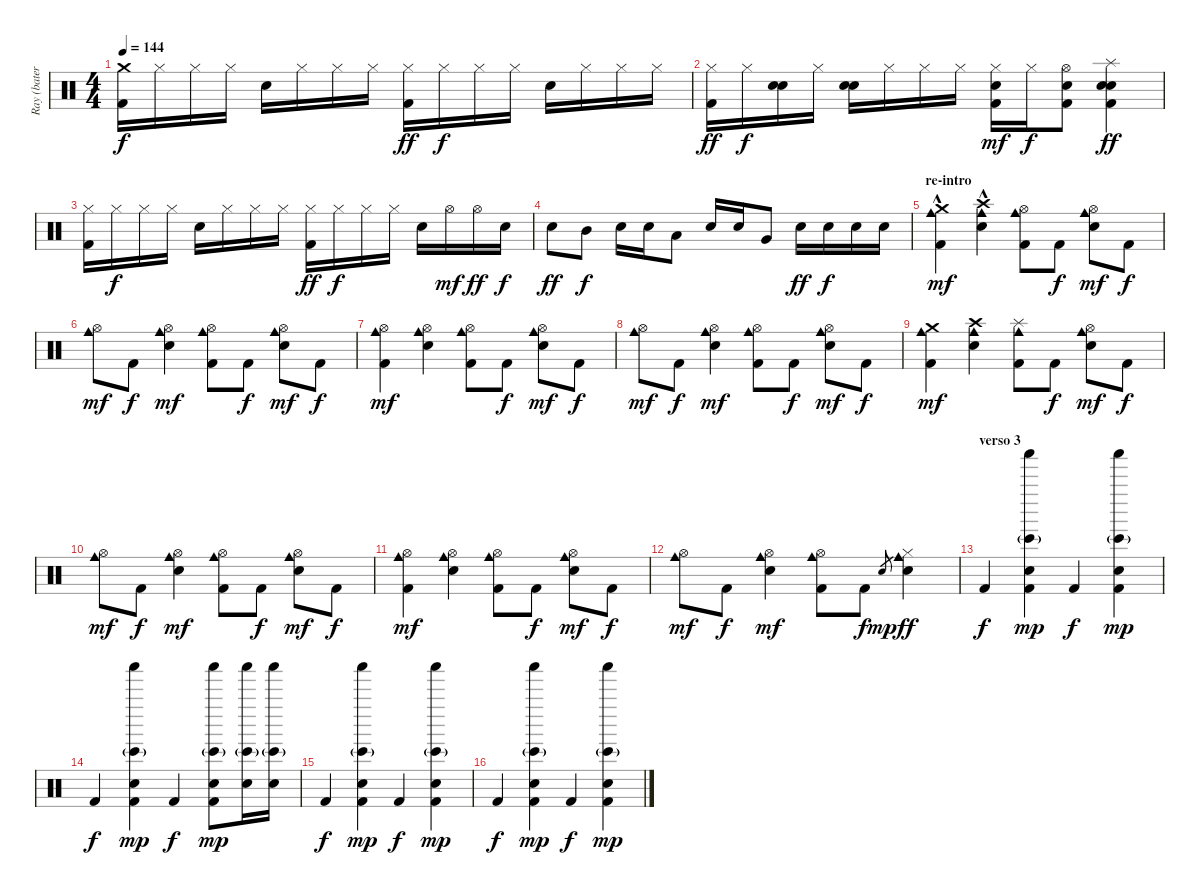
\track ("Ray (batería)" "Ray (bater") {instrument percussion}
\staff {score}
\articulation defaults
\ts (4 4)
\tempo 144
\clef neutral
\ks c
("Crash medium (hit)" "Kick (hit) 2").16{dy f} "Hi-Hat (closed)".16 "Hi-Hat (closed)".16 "Hi-Hat (closed)".16 "Snare (hit) 2".16 "Hi-Hat (closed)".16 "Hi-Hat (closed)".16 "Hi-Hat (closed)".16 ("Hi-Hat (closed)" "Kick (hit) 2").16{dy ff} "Hi-Hat (closed)".16{dy f} "Hi-Hat (closed)".16 "Hi-Hat (closed)".16 "Snare (hit) 2".16 "Hi-Hat (closed)".16 "Hi-Hat (closed)".16 "Hi-Hat (closed)".16 |
("Hi-Hat (closed)" "Kick (hit) 2").16{dy ff} "Hi-Hat (closed)".16{dy f} ("Hand Clap (hit)" "Snare (hit) 2").16 "Hi-Hat (closed)".16 ("Hand Clap (hit)" "Snare (hit) 2").16 "Hi-Hat (closed)".16 "Hi-Hat (closed)".16 "Hi-Hat (closed)".16 ("Hi-Hat (closed)" "Hand Clap (hit)" "Kick (hit) 2").16{dy mf} "Hi-Hat (closed)".16{dy f} ("Hi-Hat (open)" "Hand Clap (hit)" "Kick (hit) 2").8 ("Splash (hit)" "Hand Clap (hit)" "Snare (hit) 2" "Kick (hit) 2").4{dy ff} |
("Hi-Hat (closed)" "Kick (hit) 2").16 "Hi-Hat (closed)".16{dy f} "Hi-Hat (closed)".16 "Hi-Hat (closed)".16 "Snare (hit) 2".16 "Hi-Hat (closed)".16 "Hi-Hat (closed)".16 "Hi-Hat (closed)".16 ("Hi-Hat (closed)" "Kick (hit) 2").16{dy ff} "Hi-Hat (closed)".16{dy f} "Hi-Hat (closed)".16 "Hi-Hat (closed)".16 "Snare (hit) 2".16 "Hi-Hat (open)".16{dy mf} "Hi-Hat (open)".16{dy ff} "Snare (hit) 2".16{dy f} |
"Snare (hit) 2".8{dy ff} "Mid Tom (hit)".8{dy f} "Snare (hit) 2".16 "Snare (hit) 2".16 "Low Tom (hit)".8 "Snare (hit) 2".16 "Snare (hit) 2".16 "Very Low Tom (hit)".8 "Snare (hit) 2".16{dy ff} "Snare (hit) 2".16{dy f} "Snare (hit) 2".16 "Snare (hit) 2".16 |
\section ("" "re-intro")
("Crash medium (hit)"{hac} "Cowbell medium (hit)" "Kick (hit) 2").4{dy mf} ("Crash high (hit)"{hac} "Cowbell medium (hit)" "Snare (hit) 2").4 ("Hi-Hat (open)" "Cowbell medium (hit)" "Kick (hit) 2").8 "Kick (hit) 2".8{dy f} ("Hi-Hat (open)" "Cowbell medium (hit)" "Snare (hit) 2").8{dy mf} "Kick (hit) 2".8{dy f} |
("Hi-Hat (open)" "Cowbell medium (hit)").8{dy mf} "Kick (hit) 2".8{dy f} ("Hi-Hat (open)" "Cowbell medium (hit)" "Snare (hit) 2").4{dy mf} ("Hi-Hat (open)" "Cowbell medium (hit)" "Kick (hit) 2").8 "Kick (hit) 2".8{dy f} ("Hi-Hat (open)" "Cowbell medium (hit)" "Snare (hit) 2").8{dy mf} "Kick (hit) 2".8{dy f} |
("Hi-Hat (open)" "Cowbell medium (hit)" "Kick (hit) 2").4{dy mf} ("Hi-Hat (open)" "Cowbell medium (hit)" "Snare (hit) 2").4 ("Hi-Hat (open)" "Cowbell medium (hit)" "Kick (hit) 2").8 "Kick (hit) 2".8{dy f} ("Hi-Hat (open)" "Cowbell medium (hit)" "Snare (hit) 2").8{dy mf} "Kick (hit) 2".8{dy f} |
("Hi-Hat (open)" "Cowbell medium (hit)").8{dy mf} "Kick (hit) 2".8{dy f} ("Hi-Hat (open)" "Cowbell medium (hit)" "Snare (hit) 2").4{dy mf} ("Hi-Hat (open)" "Cowbell medium (hit)" "Kick (hit) 2").8 "Kick (hit) 2".8{dy f} ("Hi-Hat (open)" "Cowbell medium (hit)" "Snare (hit) 2").8{dy mf} "Kick (hit) 2".8{dy f} |
("Crash medium (hit)" "Cowbell medium (hit)" "Kick (hit) 2").4{dy mf} ("Crash high (hit)" "Cowbell medium (hit)" "Snare (hit) 2").4 ("Splash (hit)" "Cowbell medium (hit)" "Kick (hit) 2").8 "Kick (hit) 2".8{dy f} ("Hi-Hat (open)" "Cowbell medium (hit)" "Snare (hit) 2").8{dy mf} "Kick (hit) 2".8{dy f} |
("Hi-Hat (open)" "Cowbell medium (hit)").8{dy mf} "Kick (hit) 2".8{dy f} ("Hi-Hat (open)" "Cowbell medium (hit)" "Snare (hit) 2").4{dy mf} ("Hi-Hat (open)" "Cowbell medium (hit)" "Kick (hit) 2").8 "Kick (hit) 2".8{dy f} ("Hi-Hat (open)" "Cowbell medium (hit)" "Snare (hit) 2").8{dy mf} "Kick (hit) 2".8{dy f} |
("Hi-Hat (open)" "Cowbell medium (hit)" "Kick (hit) 2").4{dy mf} ("Hi-Hat (open)" "Cowbell medium (hit)" "Snare (hit) 2").4 ("Hi-Hat (open)" "Cowbell medium (hit)" "Kick (hit) 2").8 "Kick (hit) 2".8{dy f} ("Hi-Hat (open)" "Cowbell medium (hit)" "Snare (hit) 2").8{dy mf} "Kick (hit) 2".8{dy f} |
("Hi-Hat (open)" "Cowbell medium (hit)").8{dy mf} "Kick (hit) 2".8{dy f} ("Hi-Hat (open)" "Cowbell medium (hit)" "Snare (hit) 2").4{dy mf} ("Hi-Hat (open)" "Cowbell medium (hit)" "Kick (hit) 2").8 "Kick (hit) 2".8{dy f} "Snare (hit) 2".8{gr dy mp} ("Hi-Hat (closed)" "Cowbell medium (hit)" "Snare (hit) 2").4{dy ff} |
\section ("" "verso 3")
"Kick (hit) 2".4{dy f} ("Shaker (hit)" "Hand Clap (hit)" "Bongo High (hit)"{g} "Kick (hit) 2").4{dy mp} "Kick (hit) 2".4{dy f} ("Shaker (hit)" "Hand Clap (hit)" "Bongo High (hit)"{g} "Kick (hit) 2").4{dy mp} |
"Kick (hit) 2".4{dy f} ("Shaker (hit)" "Hand Clap (hit)" "Bongo High (hit)"{g} "Kick (hit) 2").4{dy mp} "Kick (hit) 2".4{dy f} ("Shaker (hit)" "Hand Clap (hit)" "Bongo High (hit)"{g} "Kick (hit) 2").8{dy mp} ("Shaker (hit)" "Hand Clap (hit)" "Bongo High (hit)"{g}).16 ("Shaker (hit)" "Hand Clap (hit)" "Bongo High (hit)"{g}).16 |
"Kick (hit) 2".4{dy f} ("Shaker (hit)" "Hand Clap (hit)" "Bongo High (hit)"{g} "Kick (hit) 2").4{dy mp} "Kick (hit) 2".4{dy f} ("Shaker (hit)" "Hand Clap (hit)" "Bongo High (hit)"{g} "Kick (hit) 2").4{dy mp} |
"Kick (hit) 2".4{dy f} ("Shaker (hit)" "Hand Clap (hit)" "Bongo High (hit)"{g} "Kick (hit) 2").4{dy mp} "Kick (hit) 2".4{dy f} ("Shaker (hit)" "Hand Clap (hit)" "Bongo High (hit)"{g} "Kick (hit) 2").4{dy mp}
